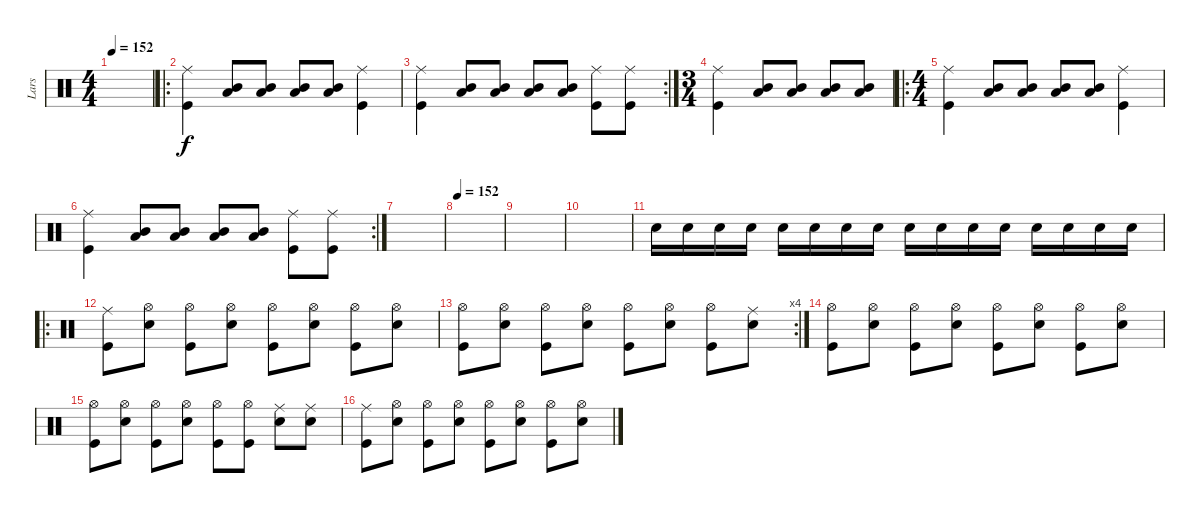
\track ("Lars" "Lars") {instrument percussion}
\staff {score}
\articulation defaults
\ts (4 4)
\tempo 152
\tempo 108
\tempo 152
\clef neutral
\ks c
|
\ro
("Ride (middle)" "Kick (hit)").4 ("Mid Tom (hit)" "Low Tom (hit)").8 ("Mid Tom (hit)" "Low Tom (hit)").8 ("Mid Tom (hit)" "Low Tom (hit)").8 ("Mid Tom (hit)" "Low Tom (hit)").8 ("Ride (middle)" "Kick (hit)").4 |
\rc 2
("Ride (middle)" "Kick (hit)").4 ("Mid Tom (hit)" "Low Tom (hit)").8 ("Mid Tom (hit)" "Low Tom (hit)").8 ("Mid Tom (hit)" "Low Tom (hit)").8 ("Mid Tom (hit)" "Low Tom (hit)").8 ("Ride (middle)" "Kick (hit)").8 ("Ride (middle)" "Kick (hit)").8 |
\ts (3 4)
("Ride (middle)" "Kick (hit)").4 ("Mid Tom (hit)" "Low Tom (hit)").8 ("Mid Tom (hit)" "Low Tom (hit)").8 ("Mid Tom (hit)" "Low Tom (hit)").8 ("Mid Tom (hit)" "Low Tom (hit)").8 |
\ro
\ts (4 4)
("Ride (middle)" "Kick (hit)").4 ("Mid Tom (hit)" "Low Tom (hit)").8 ("Mid Tom (hit)" "Low Tom (hit)").8 ("Mid Tom (hit)" "Low Tom (hit)").8 ("Mid Tom (hit)" "Low Tom (hit)").8 ("Ride (middle)" "Kick (hit)").4 |
\rc 2
("Ride (middle)" "Kick (hit)").4 ("Mid Tom (hit)" "Low Tom (hit)").8 ("Mid Tom (hit)" "Low Tom (hit)").8 ("Mid Tom (hit)" "Low Tom (hit)").8 ("Mid Tom (hit)" "Low Tom (hit)").8 ("Ride (middle)" "Kick (hit)").8 ("Ride (middle)" "Kick (hit)").8 |
|
\tempo 152
|
|
|
"Snare (hit) 2".16 "Snare (hit) 2".16 "Snare (hit) 2".16 "Snare (hit) 2".16 "Snare (hit) 2".16 "Snare (hit) 2".16 "Snare (hit) 2".16 "Snare (hit) 2".16 "Snare (hit) 2".16 "Snare (hit) 2".16 "Snare (hit) 2".16 "Snare (hit) 2".16 "Snare (hit) 2".16 "Snare (hit) 2".16 "Snare (hit) 2".16 "Snare (hit) 2".16 |
\ro
("Ride (middle)" "Kick (hit)").8 ("Hi-Hat (open)" "Snare (hit) 2").8 ("Hi-Hat (open)" "Kick (hit)").8 ("Hi-Hat (open)" "Snare (hit) 2").8 ("Hi-Hat (open)" "Kick (hit)").8 ("Hi-Hat (open)" "Snare (hit) 2").8 ("Hi-Hat (open)" "Kick (hit)").8 ("Hi-Hat (open)" "Snare (hit) 2").8 |
\rc 4
("Hi-Hat (open)" "Kick (hit)").8 ("Hi-Hat (open)" "Snare (hit) 2").8 ("Hi-Hat (open)" "Kick (hit)").8 ("Hi-Hat (open)" "Snare (hit) 2").8 ("Hi-Hat (open)" "Kick (hit)").8 ("Hi-Hat (open)" "Snare (hit) 2").8 ("Hi-Hat (open)" "Kick (hit)").8 ("Ride (middle)" "Snare (hit) 2").8 |
("Hi-Hat (open)" "Kick (hit)").8 ("Hi-Hat (open)" "Snare (hit) 2").8 ("Hi-Hat (open)" "Kick (hit)").8 ("Hi-Hat (open)" "Snare (hit) 2").8 ("Hi-Hat (open)" "Kick (hit)").8 ("Hi-Hat (open)" "Snare (hit) 2").8 ("Hi-Hat (open)" "Kick (hit)").8 ("Hi-Hat (open)" "Snare (hit) 2").8 |
("Hi-Hat (open)" "Kick (hit)").8 ("Hi-Hat (open)" "Snare (hit) 2").8 ("Hi-Hat (open)" "Kick (hit)").8 ("Hi-Hat (open)" "Snare (hit) 2").8 ("Hi-Hat (open)" "Kick (hit)").8 ("Hi-Hat (open)" "Kick (hit)").8 ("Ride (middle)" "Snare (hit) 2").8 ("Ride (middle)" "Snare (hit) 2").8 |
("Ride (middle)" "Kick (hit)").8 ("Hi-Hat (open)" "Snare (hit) 2").8 ("Hi-Hat (open)" "Kick (hit)").8 ("Hi-Hat (open)" "Snare (hit) 2").8 ("Hi-Hat (open)" "Kick (hit)").8 ("Hi-Hat (open)" "Snare (hit) 2").8 ("Hi-Hat (open)" "Kick (hit)").8 ("Hi-Hat (open)" "Snare (hit) 2").8
